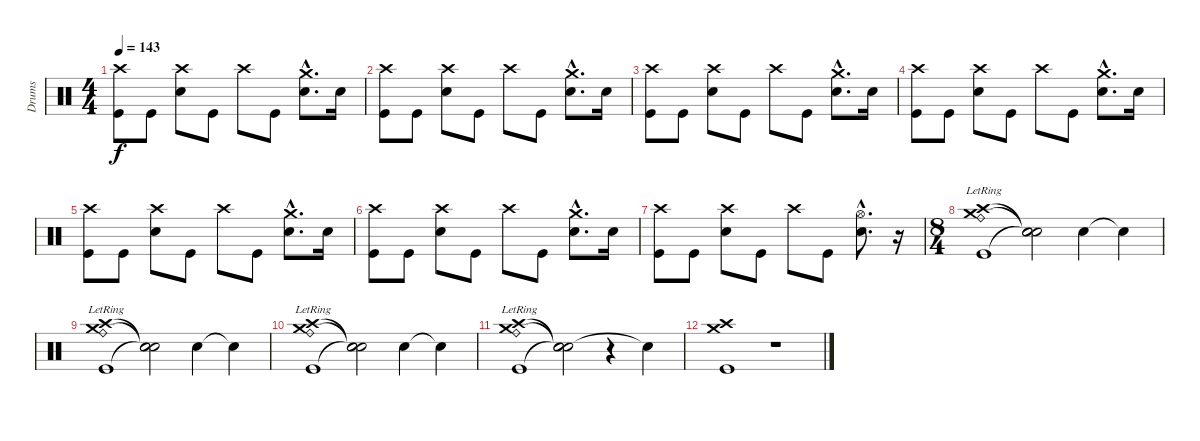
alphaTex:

\track ("Drums" "Drums") {instrument percussion}
\staff {score}
\articulation defaults
\ts (4 4)
\tempo 143
\clef neutral
\ks c
("Crash high (hit)" "Kick (hit)").8{dy f} "Kick (hit)".8 ("Crash high (hit)" "Electric Snare (hit)").8 "Kick (hit)".8 "Crash high (hit)".8 "Kick (hit)".8 ("Crash medium (hit)"{hac} "Electric Snare (hit)"{hac}).8{d} "Electric Snare (hit)".16 |
("Crash high (hit)" "Kick (hit)").8 "Kick (hit)".8 ("Crash high (hit)" "Electric Snare (hit)").8 "Kick (hit)".8 "Crash high (hit)".8 "Kick (hit)".8 ("Crash medium (hit)"{hac} "Electric Snare (hit)"{hac}).8{d} "Electric Snare (hit)".16 |
("Crash high (hit)" "Kick (hit)").8 "Kick (hit)".8 ("Crash high (hit)" "Electric Snare (hit)").8 "Kick (hit)".8 "Crash high (hit)".8 "Kick (hit)".8 ("Crash medium (hit)"{hac} "Electric Snare (hit)"{hac}).8{d} "Electric Snare (hit)".16 |
("Crash high (hit)" "Kick (hit)").8 "Kick (hit)".8 ("Crash high (hit)" "Electric Snare (hit)").8 "Kick (hit)".8 "Crash high (hit)".8 "Kick (hit)".8 ("Crash medium (hit)"{hac} "Electric Snare (hit)"{hac}).8{d} "Electric Snare (hit)".16 |
("Crash high (hit)" "Kick (hit)").8 "Kick (hit)".8 ("Crash high (hit)" "Electric Snare (hit)").8 "Kick (hit)".8 "Crash high (hit)".8 "Kick (hit)".8 ("Crash medium (hit)"{hac} "Electric Snare (hit)"{hac}).8{d} "Electric Snare (hit)".16 |
("Crash high (hit)" "Kick (hit)").8 "Kick (hit)".8 ("Crash high (hit)" "Electric Snare (hit)").8 "Kick (hit)".8 "Crash high (hit)".8 "Kick (hit)".8 ("Crash medium (hit)"{hac} "Electric Snare (hit)"{hac}).8{d} "Electric Snare (hit)".16 |
("Crash high (hit)" "Kick (hit)").8 "Kick (hit)".8 ("Crash high (hit)" "Electric Snare (hit)").8 "Kick (hit)".8 "Crash high (hit)".8 "Kick (hit)".8 ("Hi-Hat (open)"{hac} "Electric Snare (hit)"{hac}).8{d} r.16 |
\ts (8 4)
("Crash high (hit)"{lr} "Kick (hit)" "Crash medium (hit)"{lr} "Ride (bell)"{lr}).1 ("Snare (hit)"{t} "Snare (hit)"{t} "Snare (hit)"{t}).2 "Electric Snare (hit)".4 "Snare (hit)"{t}.4 |
("Crash high (hit)"{lr} "Kick (hit)" "Crash medium (hit)"{lr} "Ride (bell)"{lr}).1 ("Snare (hit)"{t} "Snare (hit)"{t} "Snare (hit)"{t}).2 "Electric Snare (hit)".4 "Snare (hit)"{t}.4 |
("Crash high (hit)"{lr} "Kick (hit)" "Crash medium (hit)"{lr} "Ride (bell)"{lr}).1 ("Snare (hit)"{t} "Snare (hit)"{t} "Snare (hit)"{t}).2 "Electric Snare (hit)".4 "Snare (hit)"{t}.4 |
("Crash high (hit)"{lr} "Kick (hit)" "Crash medium (hit)"{lr} "Ride (bell)"{lr}).1 ("Snare (hit)"{t} "Snare (hit)"{t} "Snare (hit)"{t}).2 r.4 "Snare (hit)"{t}.4 |
("Crash high (hit)" "Crash medium (hit)" "Kick (hit)").1 r.1
